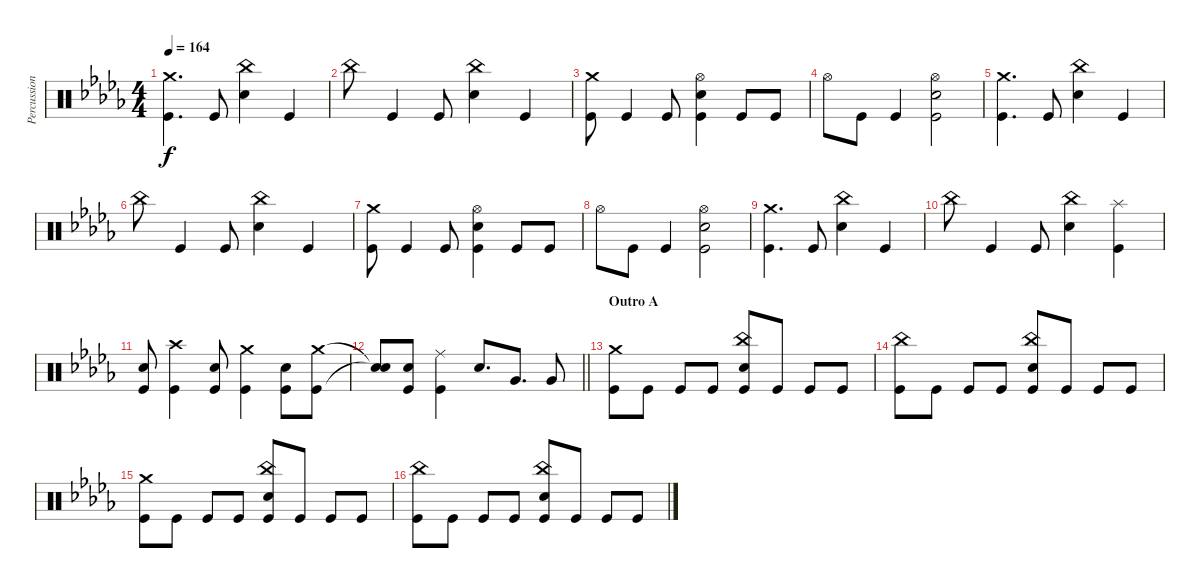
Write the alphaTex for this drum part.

\track ("Percussion" "Percussion") {instrument percussion}
\staff {score}
\articulation defaults
\ts (4 4)
\tempo 164
\clef neutral
\ks db
("Crash medium (hit)" "Kick (hit)").4{d dy f} "Kick (hit)".8 ("China (hit)" "Electric Snare (hit)").4 "Kick (hit)".4 |
"China (hit)".8 "Kick (hit)".4 "Kick (hit)".8 ("China (hit)" "Electric Snare (hit)").4 "Kick (hit)".4 |
("Crash medium (hit)" "Kick (hit)").8 "Kick (hit)".4 "Kick (hit)".8 ("Hi-Hat (open)" "Electric Snare (hit)" "Kick (hit)").4 "Kick (hit)".8 "Kick (hit)".8 |
"Hi-Hat (open)".8 "Kick (hit)".8 "Kick (hit)".4 ("Hi-Hat (open)" "Electric Snare (hit)" "Kick (hit)").2 |
("Crash medium (hit)" "Kick (hit)").4{d} "Kick (hit)".8 ("China (hit)" "Electric Snare (hit)").4 "Kick (hit)".4 |
"China (hit)".8 "Kick (hit)".4 "Kick (hit)".8 ("China (hit)" "Electric Snare (hit)").4 "Kick (hit)".4 |
("Crash medium (hit)" "Kick (hit)").8 "Kick (hit)".4 "Kick (hit)".8 ("Hi-Hat (open)" "Electric Snare (hit)" "Kick (hit)").4 "Kick (hit)".8 "Kick (hit)".8 |
"Hi-Hat (open)".8 "Kick (hit)".8 "Kick (hit)".4 ("Hi-Hat (open)" "Electric Snare (hit)" "Kick (hit)").2 |
("Crash medium (hit)" "Kick (hit)").4{d} "Kick (hit)".8 ("China (hit)" "Electric Snare (hit)").4 "Kick (hit)".4 |
"China (hit)".8 "Kick (hit)".4 "Kick (hit)".8 ("China (hit)" "Electric Snare (hit)").4 ("Splash (hit)" "Kick (hit)").4 |
("Electric Snare (hit)" "Kick (hit)").8 ("Crash high (hit)" "Kick (hit)").4 ("Electric Snare (hit)" "Kick (hit)").8 ("Crash medium (hit)" "Kick (hit)").4 ("Electric Snare (hit)" "Kick (hit)").8 ("Crash medium (hit)" "Kick (hit)").8 |
\barLineRight lightlight
("Snare (hit)"{t} "Snare (hit)"{t}).8 ("Electric Snare (hit)" "Kick (hit)").8 ("Ride (middle)" "Kick (hit)").4 "Electric Snare (hit)".8{d} "Very Low Tom (hit)".8{d} "Very Low Tom (hit)".8 |
\section ("" "Outro A")
("Crash medium (hit)" "Kick (hit)").8 "Kick (hit)".8 "Kick (hit)".8 "Kick (hit)".8 ("China (hit)" "Electric Snare (hit)" "Kick (hit)").8 "Kick (hit)".8 "Kick (hit)".8 "Kick (hit)".8 |
("China (hit)" "Kick (hit)").8 "Kick (hit)".8 "Kick (hit)".8 "Kick (hit)".8 ("China (hit)" "Electric Snare (hit)" "Kick (hit)").8 "Kick (hit)".8 "Kick (hit)".8 "Kick (hit)".8 |
("Crash medium (hit)" "Kick (hit)").8 "Kick (hit)".8 "Kick (hit)".8 "Kick (hit)".8 ("China (hit)" "Electric Snare (hit)" "Kick (hit)").8 "Kick (hit)".8 "Kick (hit)".8 "Kick (hit)".8 |
("China (hit)" "Kick (hit)").8 "Kick (hit)".8 "Kick (hit)".8 "Kick (hit)".8 ("China (hit)" "Electric Snare (hit)" "Kick (hit)").8 "Kick (hit)".8 "Kick (hit)".8 "Kick (hit)".8
